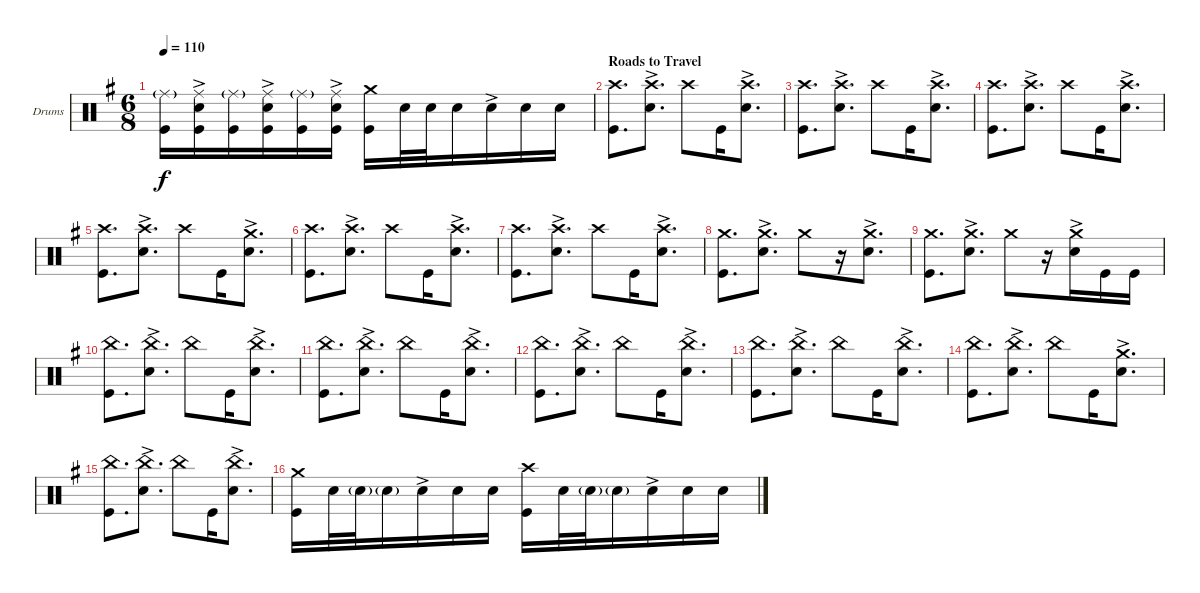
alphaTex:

\bracketExtendMode groupsimilarinstruments
\firstSystemTrackNameOrientation horizontal
\otherSystemsTrackNameOrientation horizontal
\track ("Drumkit" "Drums") {instrument percussion}
\staff {score}
\articulation defaults
\ts (6 8)
\tempo 110
\clef neutral
\ks eminor
("Kick (hit)" "Ride (middle)"{g}).16{dy f} ("Kick (hit)" "Snare (hit) 2"{ac} "Ride (middle)").16 ("Kick (hit)" "Ride (middle)"{g}).16 ("Kick (hit)" "Snare (hit) 2"{ac} "Ride (middle)").16 ("Kick (hit)" "Ride (middle)"{g}).16 ("Kick (hit)" "Snare (hit) 2"{ac} "Ride (middle)").16 ("Kick (hit)" "Crash medium (hit)").16 "Snare (hit) 2".32 "Snare (hit) 2".32 "Snare (hit) 2".16 "Snare (hit) 2"{ac}.16 "Snare (hit) 2".16 "Snare (hit) 2".16 |
\section ("" "Roads to Travel")
("Kick (hit)" "Crash high (hit)").8{d} ("Snare (hit) 2"{ac} "Crash high (hit)").8{d} "Crash high (hit)".8 "Kick (hit)".16 ("Snare (hit) 2"{ac} "Crash high (hit)").8{d} |
("Kick (hit)" "Crash high (hit)").8{d} ("Snare (hit) 2"{ac} "Crash high (hit)").8{d} "Crash high (hit)".8 "Kick (hit)".16 ("Snare (hit) 2"{ac} "Crash high (hit)").8{d} |
("Kick (hit)" "Crash high (hit)").8{d} ("Snare (hit) 2"{ac} "Crash high (hit)").8{d} "Crash high (hit)".8 "Kick (hit)".16 ("Snare (hit) 2"{ac} "Crash high (hit)").8{d} |
("Kick (hit)" "Crash high (hit)").8{d} ("Snare (hit) 2"{ac} "Crash high (hit)").8{d} "Crash high (hit)".8 "Kick (hit)".16 ("Snare (hit) 2"{ac} "Crash medium (hit)").8{d} |
("Kick (hit)" "Crash high (hit)").8{d} ("Snare (hit) 2"{ac} "Crash high (hit)").8{d} "Crash high (hit)".8 "Kick (hit)".16 ("Snare (hit) 2"{ac} "Crash high (hit)").8{d} |
("Kick (hit)" "Crash high (hit)").8{d} ("Snare (hit) 2"{ac} "Crash high (hit)").8{d} "Crash high (hit)".8 "Kick (hit)".16 ("Snare (hit) 2"{ac} "Crash high (hit)").8{d} |
("Kick (hit)" "Crash medium (hit)").8{d} ("Snare (hit) 2"{ac} "Crash medium (hit)").8{d} "Crash medium (hit)".8 r.16 ("Snare (hit) 2"{ac} "Crash medium (hit)").8{d} |
("Kick (hit)" "Crash medium (hit)").8{d} ("Snare (hit) 2"{ac} "Crash medium (hit)").8{d} "Crash medium (hit)".8 r.16 ("Snare (hit) 2"{ac} "Crash medium (hit)").16 "Kick (hit)".16 "Kick (hit)".16 |
("Kick (hit)" "China (hit)").8{d} ("Snare (hit) 2"{ac} "China (hit)").8{d} "China (hit)".8 "Kick (hit)".16 ("Snare (hit) 2"{ac} "China (hit)").8{d} |
("Kick (hit)" "China (hit)").8{d} ("Snare (hit) 2"{ac} "China (hit)").8{d} "China (hit)".8 "Kick (hit)".16 ("Snare (hit) 2"{ac} "China (hit)").8{d} |
("Kick (hit)" "China (hit)").8{d} ("Snare (hit) 2"{ac} "China (hit)").8{d} "China (hit)".8 "Kick (hit)".16 ("Snare (hit) 2"{ac} "China (hit)").8{d} |
("Kick (hit)" "China (hit)").8{d} ("Snare (hit) 2"{ac} "China (hit)").8{d} "China (hit)".8 "Kick (hit)".16 ("Snare (hit) 2"{ac} "China (hit)").8{d} |
("Kick (hit)" "China (hit)").8{d} ("Snare (hit) 2"{ac} "China (hit)").8{d} "China (hit)".8 "Kick (hit)".16 ("Snare (hit) 2"{ac} "Crash medium (hit)").8{d} |
("Kick (hit)" "China (hit)").8{d} ("Snare (hit) 2"{ac} "China (hit)").8{d} "China (hit)".8 "Kick (hit)".16 ("Snare (hit) 2"{ac} "China (hit)").8{d} |
("Kick (hit)" "Crash medium (hit)").16 "Snare (hit) 2".32 "Snare (hit) 2"{g}.32 "Snare (hit) 2"{g}.16 "Snare (hit) 2"{ac}.16 "Snare (hit) 2".16 "Snare (hit) 2".16 ("Kick (hit)" "Crash high (hit)").16 "Snare (hit) 2".32 "Snare (hit) 2"{g}.32 "Snare (hit) 2"{g}.16 "Snare (hit) 2"{ac}.16 "Snare (hit) 2".16 "Snare (hit) 2".16
